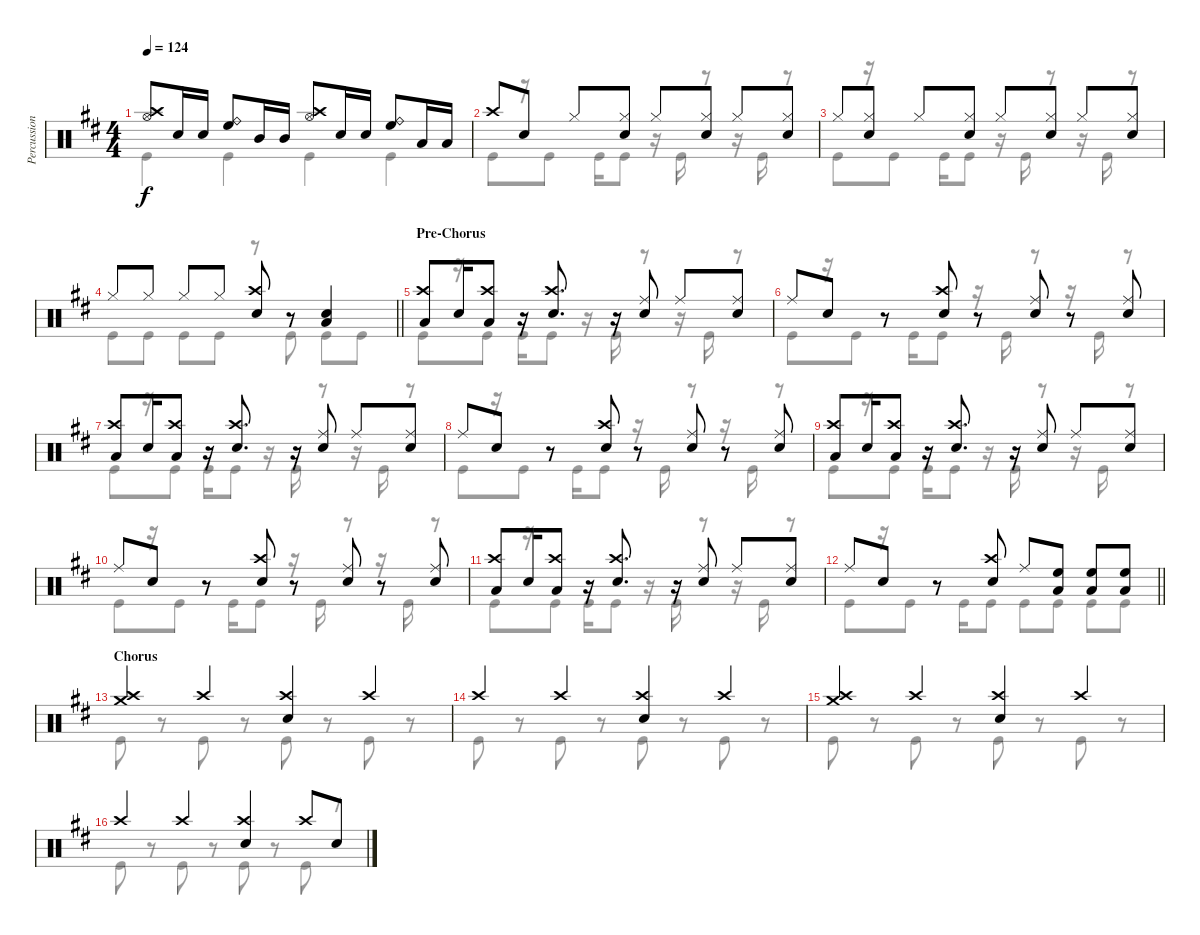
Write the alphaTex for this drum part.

\track ("Percussion" "Percussion") {instrument percussion}
\staff {score}
\articulation defaults
\voice
\ts (4 4)
\tempo 124
\clef neutral
\ks d
("Crash high (hit)" "Hi-Hat (open)").8{dy f} "Snare (hit) 2".16 "Snare (hit) 2".16 ("Ride (bell)" "High Floor Tom (hit)").8 "Mid Tom (hit)".16 "Mid Tom (hit)".16 ("Crash high (hit)" "Hi-Hat (open)").8 "Snare (hit) 2".16 "Snare (hit) 2".16 ("Ride (bell)" "High Floor Tom (hit)").8 "Low Tom (hit)".16 "Low Tom (hit)".16 |
"Crash high (hit)".8 "Snare (hit) 2".8 "Hi-Hat (closed)".8 ("Hi-Hat (closed)" "Snare (hit) 2").8 "Hi-Hat (closed)".8 ("Hi-Hat (closed)" "Snare (hit) 2").8 "Hi-Hat (closed)".8 ("Hi-Hat (closed)" "Snare (hit) 2").8 |
"Hi-Hat (closed)".8 ("Hi-Hat (closed)" "Snare (hit) 2").8 "Hi-Hat (closed)".8 ("Hi-Hat (closed)" "Snare (hit) 2").8 "Hi-Hat (closed)".8 ("Hi-Hat (closed)" "Snare (hit) 2").8 "Hi-Hat (closed)".8 ("Hi-Hat (closed)" "Snare (hit) 2").8 |
\barLineRight lightlight "Hi-Hat (closed)".8 "Hi-Hat (closed)".8 "Hi-Hat (closed)".8 "Hi-Hat (closed)".8
("Crash high (hit)" "Snare (hit) 2").8 r.8 ("Low Tom (hit)" "Snare (hit) 2").4 |
\section ("" "Pre-Chorus")
("Crash high (hit)" "Low Tom (hit)").8 "Snare (hit) 2".16 ("Crash high (hit)" "Low Tom (hit)").8 r.16 ("Crash high (hit)" "Snare (hit) 2").8{d} r.16 ("Ride (middle)" "Snare (hit) 2").8 "Ride (middle)".8 ("Ride (middle)" "Snare (hit) 2").8 |
"Ride (middle)".8 "Snare (hit) 2".8 r.8 ("Crash high (hit)" "Snare (hit) 2").8 r.8 ("Ride (middle)" "Snare (hit) 2").8 r.8 ("Ride (middle)" "Snare (hit) 2").8 |
("Crash high (hit)" "Low Tom (hit)").8 "Snare (hit) 2".16 ("Crash high (hit)" "Low Tom (hit)").8 r.16 ("Crash high (hit)" "Snare (hit) 2").8{d} r.16 ("Ride (middle)" "Snare (hit) 2").8 "Ride (middle)".8 ("Ride (middle)" "Snare (hit) 2").8 |
"Ride (middle)".8 "Snare (hit) 2".8 r.8 ("Crash high (hit)" "Snare (hit) 2").8 r.8 ("Ride (middle)" "Snare (hit) 2").8 r.8 ("Ride (middle)" "Snare (hit) 2").8 |
("Crash high (hit)" "Low Tom (hit)").8 "Snare (hit) 2".16 ("Crash high (hit)" "Low Tom (hit)").8 r.16 ("Crash high (hit)" "Snare (hit) 2").8{d} r.16 ("Ride (middle)" "Snare (hit) 2").8 "Ride (middle)".8 ("Ride (middle)" "Snare (hit) 2").8 |
"Ride (middle)".8 "Snare (hit) 2".8 r.8 ("Crash high (hit)" "Snare (hit) 2").8 r.8 ("Ride (middle)" "Snare (hit) 2").8 r.8 ("Ride (middle)" "Snare (hit) 2").8 |
("Crash high (hit)" "Low Tom (hit)").8 "Snare (hit) 2".16 ("Crash high (hit)" "Low Tom (hit)").8 r.16 ("Crash high (hit)" "Snare (hit) 2").8{d} r.16 ("Ride (middle)" "Snare (hit) 2").8 "Ride (middle)".8 ("Ride (middle)" "Snare (hit) 2").8 |
\barLineRight lightlight "Ride (middle)".8 "Snare (hit) 2".8
r.8 ("Crash high (hit)" "Snare (hit) 2").8 "Ride (middle)".8 ("High Floor Tom (hit)" "Low Tom (hit)").8 ("High Floor Tom (hit)" "Low Tom (hit)").8 ("High Floor Tom (hit)" "Low Tom (hit)").8 |
\section ("" "Chorus")
("Crash high (hit)" "Crash medium (hit)").4 "Crash high (hit)".4 ("Crash high (hit)" "Snare (hit) 2").4 "Crash high (hit)".4 |
"Crash high (hit)".4 "Crash high (hit)".4 ("Crash high (hit)" "Snare (hit) 2").4 "Crash high (hit)".4 |
("Crash high (hit)" "Crash medium (hit)").4 "Crash high (hit)".4 ("Crash high (hit)" "Snare (hit) 2").4 "Crash high (hit)".4 |
"Crash high (hit)".4 "Crash high (hit)".4 ("Crash high (hit)" "Snare (hit) 2").4 "Crash high (hit)".8 "Snare (hit) 2".8
\voice
\clef neutral
\ottava regular
\simile none
\ks d "Kick (hit)".4{dy f} "Kick (hit)".4 "Kick (hit)".4 "Kick (hit)".4
|
"Kick (hit)".8 r.16 "Kick (hit)".8 "Kick (hit)".16 "Kick (hit)".8 r.16 "Kick (hit)".16 r.8 r.16 "Kick (hit)".16 r.8 |
"Kick (hit)".8 r.16 "Kick (hit)".8 "Kick (hit)".16 "Kick (hit)".8 r.16 "Kick (hit)".16 r.8 r.16 "Kick (hit)".16 r.8 |
\barLineRight lightlight "Kick (hit)".8 "Kick (hit)".8 "Kick (hit)".8 "Kick (hit)".8
r.8 "Kick (hit)".8 "Kick (hit)".8 "Kick (hit)".8 |
"Kick (hit)".8 r.16 "Kick (hit)".8 "Kick (hit)".16 "Kick (hit)".8 r.16 "Kick (hit)".16 r.8 r.16 "Kick (hit)".16 r.8 |
"Kick (hit)".8 r.16 "Kick (hit)".8 "Kick (hit)".16 "Kick (hit)".8 r.16 "Kick (hit)".16 r.8 r.16 "Kick (hit)".16 r.8 |
"Kick (hit)".8 r.16 "Kick (hit)".8 "Kick (hit)".16 "Kick (hit)".8 r.16 "Kick (hit)".16 r.8 r.16 "Kick (hit)".16 r.8 |
"Kick (hit)".8 r.16 "Kick (hit)".8 "Kick (hit)".16 "Kick (hit)".8 r.16 "Kick (hit)".16 r.8 r.16 "Kick (hit)".16 r.8 |
"Kick (hit)".8 r.16 "Kick (hit)".8 "Kick (hit)".16 "Kick (hit)".8 r.16 "Kick (hit)".16 r.8 r.16 "Kick (hit)".16 r.8 |
"Kick (hit)".8 r.16 "Kick (hit)".8 "Kick (hit)".16 "Kick (hit)".8 r.16 "Kick (hit)".16 r.8 r.16 "Kick (hit)".16 r.8 |
"Kick (hit)".8 r.16 "Kick (hit)".8 "Kick (hit)".16 "Kick (hit)".8 r.16 "Kick (hit)".16 r.8 r.16 "Kick (hit)".16 r.8 |
\barLineRight lightlight "Kick (hit)".8
r.16 "Kick (hit)".8 "Kick (hit)".16 "Kick (hit)".8 "Kick (hit)".8 "Kick (hit)".8 "Kick (hit)".8 "Kick (hit)".8 |
"Kick (hit)".8 r.8 "Kick (hit)".8 r.8 "Kick (hit)".8 r.8 "Kick (hit)".8 r.8 |
"Kick (hit)".8 r.8 "Kick (hit)".8 r.8 "Kick (hit)".8 r.8 "Kick (hit)".8 r.8 |
"Kick (hit)".8 r.8 "Kick (hit)".8 r.8 "Kick (hit)".8 r.8 "Kick (hit)".8 r.8 |
"Kick (hit)".8 r.8 "Kick (hit)".8 r.8 "Kick (hit)".8 r.8 "Kick (hit)".8 r.8
